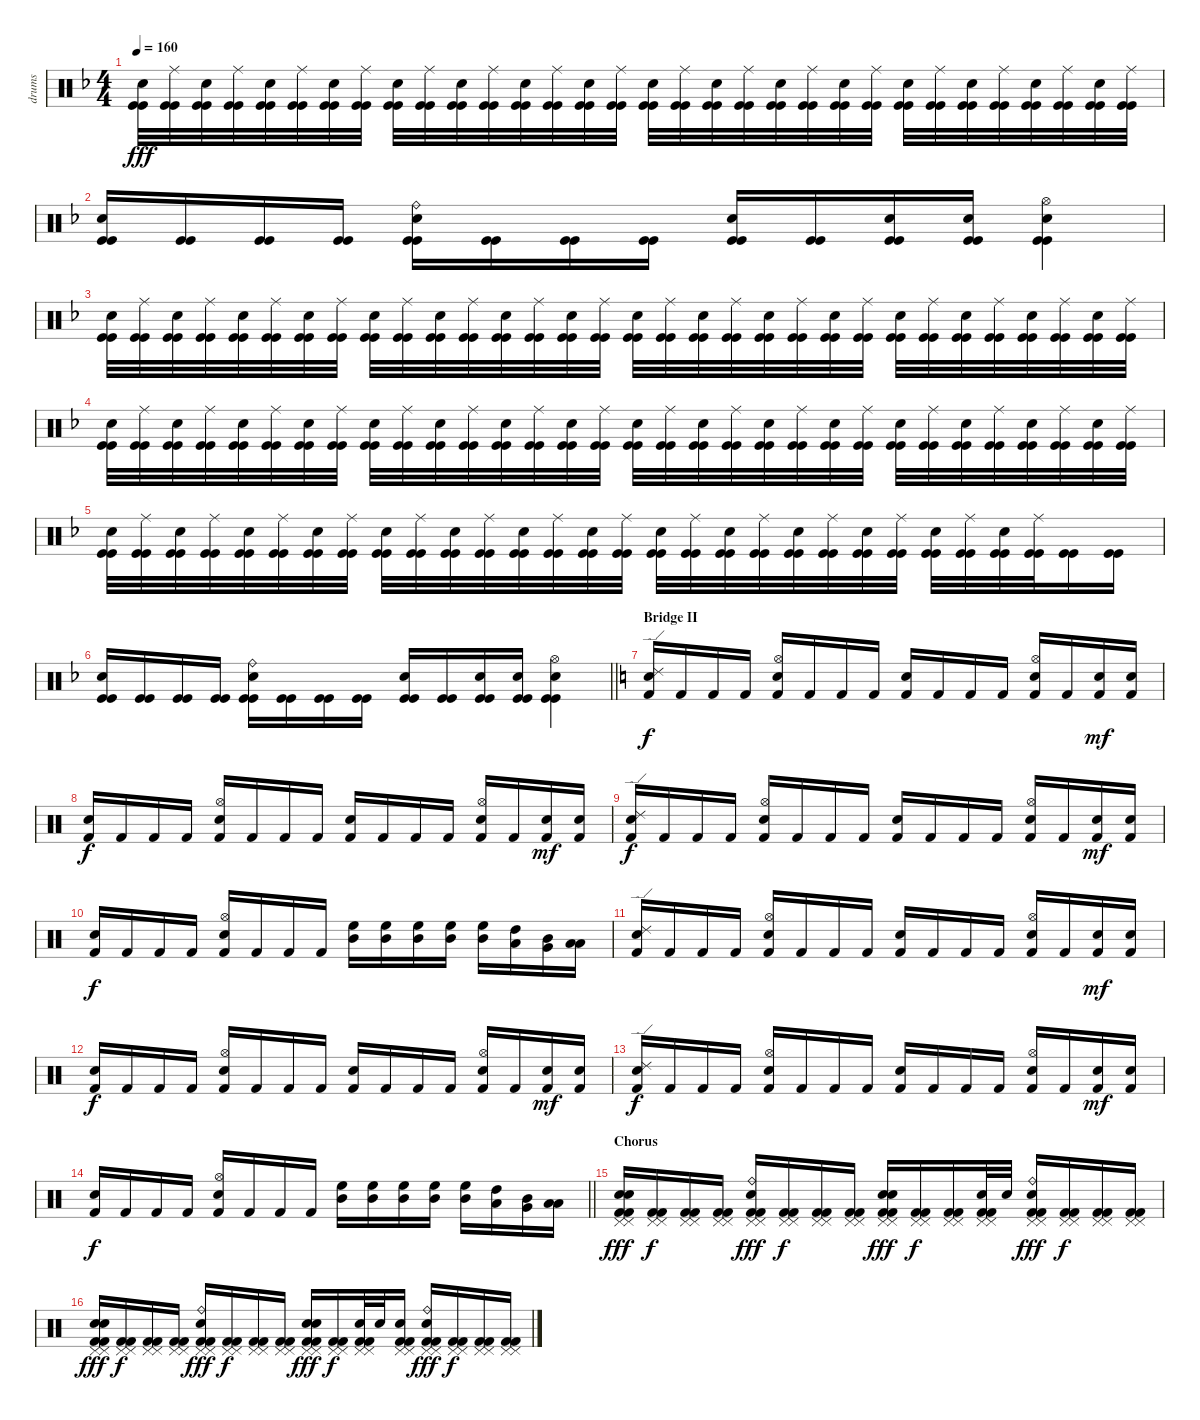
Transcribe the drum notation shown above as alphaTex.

\track ("drums" "drums") {instrument percussion}
\staff {score}
\articulation defaults
\ts (4 4)
\tempo 160
\clef neutral
\ks dminor
("Kick (hit)" "Kick (hit)" "Electric Snare (hit)").32{dy fff} ("Kick (hit)" "Kick (hit)" "Ride (middle)").32 ("Kick (hit)" "Kick (hit)" "Electric Snare (hit)").32 ("Kick (hit)" "Kick (hit)" "Ride (middle)").32 ("Kick (hit)" "Kick (hit)" "Electric Snare (hit)").32 ("Kick (hit)" "Kick (hit)" "Ride (middle)").32 ("Kick (hit)" "Kick (hit)" "Electric Snare (hit)").32 ("Kick (hit)" "Kick (hit)" "Ride (middle)").32 ("Kick (hit)" "Kick (hit)" "Electric Snare (hit)").32 ("Kick (hit)" "Kick (hit)" "Ride (middle)").32 ("Kick (hit)" "Kick (hit)" "Electric Snare (hit)").32 ("Kick (hit)" "Kick (hit)" "Ride (middle)").32 ("Kick (hit)" "Kick (hit)" "Electric Snare (hit)").32 ("Kick (hit)" "Kick (hit)" "Ride (middle)").32 ("Kick (hit)" "Kick (hit)" "Electric Snare (hit)").32 ("Kick (hit)" "Kick (hit)" "Ride (middle)").32 ("Kick (hit)" "Kick (hit)" "Electric Snare (hit)").32 ("Kick (hit)" "Kick (hit)" "Ride (middle)").32 ("Kick (hit)" "Kick (hit)" "Electric Snare (hit)").32 ("Kick (hit)" "Kick (hit)" "Ride (middle)").32 ("Kick (hit)" "Kick (hit)" "Electric Snare (hit)").32 ("Kick (hit)" "Kick (hit)" "Ride (middle)").32 ("Kick (hit)" "Kick (hit)" "Electric Snare (hit)").32 ("Kick (hit)" "Kick (hit)" "Ride (middle)").32 ("Kick (hit)" "Kick (hit)" "Electric Snare (hit)").32 ("Kick (hit)" "Kick (hit)" "Ride (middle)").32 ("Kick (hit)" "Kick (hit)" "Electric Snare (hit)").32 ("Kick (hit)" "Kick (hit)" "Ride (middle)").32 ("Kick (hit)" "Kick (hit)" "Electric Snare (hit)").32 ("Kick (hit)" "Kick (hit)" "Ride (middle)").32 ("Kick (hit)" "Kick (hit)" "Electric Snare (hit)").32 ("Kick (hit)" "Kick (hit)" "Ride (middle)").32 |
("Kick (hit)" "Kick (hit)" "Electric Snare (hit)").16 ("Kick (hit)" "Kick (hit)").16 ("Kick (hit)" "Kick (hit)").16 ("Kick (hit)" "Kick (hit)").16 ("Kick (hit)" "Kick (hit)" "Electric Snare (hit)" "Ride (bell)").16 ("Kick (hit)" "Kick (hit)").16 ("Kick (hit)" "Kick (hit)").16 ("Kick (hit)" "Kick (hit)").16 ("Kick (hit)" "Kick (hit)" "Electric Snare (hit)").16 ("Kick (hit)" "Kick (hit)").16 ("Kick (hit)" "Kick (hit)" "Electric Snare (hit)").16 ("Kick (hit)" "Kick (hit)" "Electric Snare (hit)").16 ("Kick (hit)" "Kick (hit)" "Electric Snare (hit)" "Hi-Hat (open)").4 |
("Kick (hit)" "Kick (hit)" "Electric Snare (hit)").32 ("Kick (hit)" "Kick (hit)" "Ride (middle)").32 ("Kick (hit)" "Kick (hit)" "Electric Snare (hit)").32 ("Kick (hit)" "Kick (hit)" "Ride (middle)").32 ("Kick (hit)" "Kick (hit)" "Electric Snare (hit)").32 ("Kick (hit)" "Kick (hit)" "Ride (middle)").32 ("Kick (hit)" "Kick (hit)" "Electric Snare (hit)").32 ("Kick (hit)" "Kick (hit)" "Ride (middle)").32 ("Kick (hit)" "Kick (hit)" "Electric Snare (hit)").32 ("Kick (hit)" "Kick (hit)" "Ride (middle)").32 ("Kick (hit)" "Kick (hit)" "Electric Snare (hit)").32 ("Kick (hit)" "Kick (hit)" "Ride (middle)").32 ("Kick (hit)" "Kick (hit)" "Electric Snare (hit)").32 ("Kick (hit)" "Kick (hit)" "Ride (middle)").32 ("Kick (hit)" "Kick (hit)" "Electric Snare (hit)").32 ("Kick (hit)" "Kick (hit)" "Ride (middle)").32 ("Kick (hit)" "Kick (hit)" "Electric Snare (hit)").32 ("Kick (hit)" "Kick (hit)" "Ride (middle)").32 ("Kick (hit)" "Kick (hit)" "Electric Snare (hit)").32 ("Kick (hit)" "Kick (hit)" "Ride (middle)").32 ("Kick (hit)" "Kick (hit)" "Electric Snare (hit)").32 ("Kick (hit)" "Kick (hit)" "Ride (middle)").32 ("Kick (hit)" "Kick (hit)" "Electric Snare (hit)").32 ("Kick (hit)" "Kick (hit)" "Ride (middle)").32 ("Kick (hit)" "Kick (hit)" "Electric Snare (hit)").32 ("Kick (hit)" "Kick (hit)" "Ride (middle)").32 ("Kick (hit)" "Kick (hit)" "Electric Snare (hit)").32 ("Kick (hit)" "Kick (hit)" "Ride (middle)").32 ("Kick (hit)" "Kick (hit)" "Electric Snare (hit)").32 ("Kick (hit)" "Kick (hit)" "Ride (middle)").32 ("Kick (hit)" "Kick (hit)" "Electric Snare (hit)").32 ("Kick (hit)" "Kick (hit)" "Ride (middle)").32 |
("Kick (hit)" "Kick (hit)" "Electric Snare (hit)").32 ("Kick (hit)" "Kick (hit)" "Ride (middle)").32 ("Kick (hit)" "Kick (hit)" "Electric Snare (hit)").32 ("Kick (hit)" "Kick (hit)" "Ride (middle)").32 ("Kick (hit)" "Kick (hit)" "Electric Snare (hit)").32 ("Kick (hit)" "Kick (hit)" "Ride (middle)").32 ("Kick (hit)" "Kick (hit)" "Electric Snare (hit)").32 ("Kick (hit)" "Kick (hit)" "Ride (middle)").32 ("Kick (hit)" "Kick (hit)" "Electric Snare (hit)").32 ("Kick (hit)" "Kick (hit)" "Ride (middle)").32 ("Kick (hit)" "Kick (hit)" "Electric Snare (hit)").32 ("Kick (hit)" "Kick (hit)" "Ride (middle)").32 ("Kick (hit)" "Kick (hit)" "Electric Snare (hit)").32 ("Kick (hit)" "Kick (hit)" "Ride (middle)").32 ("Kick (hit)" "Kick (hit)" "Electric Snare (hit)").32 ("Kick (hit)" "Kick (hit)" "Ride (middle)").32 ("Kick (hit)" "Kick (hit)" "Electric Snare (hit)").32 ("Kick (hit)" "Kick (hit)" "Ride (middle)").32 ("Kick (hit)" "Kick (hit)" "Electric Snare (hit)").32 ("Kick (hit)" "Kick (hit)" "Ride (middle)").32 ("Kick (hit)" "Kick (hit)" "Electric Snare (hit)").32 ("Kick (hit)" "Kick (hit)" "Ride (middle)").32 ("Kick (hit)" "Kick (hit)" "Electric Snare (hit)").32 ("Kick (hit)" "Kick (hit)" "Ride (middle)").32 ("Kick (hit)" "Kick (hit)" "Electric Snare (hit)").32 ("Kick (hit)" "Kick (hit)" "Ride (middle)").32 ("Kick (hit)" "Kick (hit)" "Electric Snare (hit)").32 ("Kick (hit)" "Kick (hit)" "Ride (middle)").32 ("Kick (hit)" "Kick (hit)" "Electric Snare (hit)").32 ("Kick (hit)" "Kick (hit)" "Ride (middle)").32 ("Kick (hit)" "Kick (hit)" "Electric Snare (hit)").32 ("Kick (hit)" "Kick (hit)" "Ride (middle)").32 |
("Kick (hit)" "Kick (hit)" "Electric Snare (hit)").32 ("Kick (hit)" "Kick (hit)" "Ride (middle)").32 ("Kick (hit)" "Kick (hit)" "Electric Snare (hit)").32 ("Kick (hit)" "Kick (hit)" "Ride (middle)").32 ("Kick (hit)" "Kick (hit)" "Electric Snare (hit)").32 ("Kick (hit)" "Kick (hit)" "Ride (middle)").32 ("Kick (hit)" "Kick (hit)" "Electric Snare (hit)").32 ("Kick (hit)" "Kick (hit)" "Ride (middle)").32 ("Kick (hit)" "Kick (hit)" "Electric Snare (hit)").32 ("Kick (hit)" "Kick (hit)" "Ride (middle)").32 ("Kick (hit)" "Kick (hit)" "Electric Snare (hit)").32 ("Kick (hit)" "Kick (hit)" "Ride (middle)").32 ("Kick (hit)" "Kick (hit)" "Electric Snare (hit)").32 ("Kick (hit)" "Kick (hit)" "Ride (middle)").32 ("Kick (hit)" "Kick (hit)" "Electric Snare (hit)").32 ("Kick (hit)" "Kick (hit)" "Ride (middle)").32 ("Kick (hit)" "Kick (hit)" "Electric Snare (hit)").32 ("Kick (hit)" "Kick (hit)" "Ride (middle)").32 ("Kick (hit)" "Kick (hit)" "Electric Snare (hit)").32 ("Kick (hit)" "Kick (hit)" "Ride (middle)").32 ("Kick (hit)" "Kick (hit)" "Electric Snare (hit)").32 ("Kick (hit)" "Kick (hit)" "Ride (middle)").32 ("Kick (hit)" "Kick (hit)" "Electric Snare (hit)").32 ("Kick (hit)" "Kick (hit)" "Ride (middle)").32 ("Kick (hit)" "Kick (hit)" "Electric Snare (hit)").32 ("Kick (hit)" "Kick (hit)" "Ride (middle)").32 ("Kick (hit)" "Kick (hit)" "Electric Snare (hit)").32 ("Kick (hit)" "Kick (hit)" "Ride (middle)").32 ("Kick (hit)" "Kick (hit)").16 ("Kick (hit)" "Kick (hit)").16 |
\barLineRight lightlight
("Kick (hit)" "Kick (hit)" "Electric Snare (hit)").16 ("Kick (hit)" "Kick (hit)").16 ("Kick (hit)" "Kick (hit)").16 ("Kick (hit)" "Kick (hit)").16 ("Kick (hit)" "Kick (hit)" "Electric Snare (hit)" "Ride (bell)").16 ("Kick (hit)" "Kick (hit)").16 ("Kick (hit)" "Kick (hit)").16 ("Kick (hit)" "Kick (hit)").16 ("Kick (hit)" "Kick (hit)" "Electric Snare (hit)").16 ("Kick (hit)" "Kick (hit)").16 ("Kick (hit)" "Kick (hit)" "Electric Snare (hit)").16 ("Kick (hit)" "Kick (hit)" "Electric Snare (hit)").16 ("Kick (hit)" "Kick (hit)" "Electric Snare (hit)" "Hi-Hat (open)").4 |
\section ("" "Bridge II")
\ks c
("Kick (hit) 2" "Electric Snare (hit)" "Ride (edge) 2").16{dy f} "Kick (hit) 2".16 "Kick (hit) 2".16 "Kick (hit) 2".16 ("Kick (hit) 2" "Electric Snare (hit)" "Hi-Hat (open)").16 "Kick (hit) 2".16 "Kick (hit) 2".16 "Kick (hit) 2".16 ("Kick (hit) 2" "Electric Snare (hit)").16 "Kick (hit) 2".16 "Kick (hit) 2".16 "Kick (hit) 2".16 ("Kick (hit) 2" "Electric Snare (hit)" "Hi-Hat (open)").16 "Kick (hit) 2".16 ("Kick (hit) 2" "Electric Snare (hit)").16{dy mf} ("Kick (hit) 2" "Electric Snare (hit)").16 |
("Kick (hit) 2" "Electric Snare (hit)").16{dy f} "Kick (hit) 2".16 "Kick (hit) 2".16 "Kick (hit) 2".16 ("Kick (hit) 2" "Electric Snare (hit)" "Hi-Hat (open)").16 "Kick (hit) 2".16 "Kick (hit) 2".16 "Kick (hit) 2".16 ("Kick (hit) 2" "Electric Snare (hit)").16 "Kick (hit) 2".16 "Kick (hit) 2".16 "Kick (hit) 2".16 ("Kick (hit) 2" "Electric Snare (hit)" "Hi-Hat (open)").16 "Kick (hit) 2".16 ("Kick (hit) 2" "Electric Snare (hit)").16{dy mf} ("Kick (hit) 2" "Electric Snare (hit)").16 |
("Kick (hit) 2" "Electric Snare (hit)" "Ride (edge) 2").16{dy f} "Kick (hit) 2".16 "Kick (hit) 2".16 "Kick (hit) 2".16 ("Kick (hit) 2" "Electric Snare (hit)" "Hi-Hat (open)").16 "Kick (hit) 2".16 "Kick (hit) 2".16 "Kick (hit) 2".16 ("Kick (hit) 2" "Electric Snare (hit)").16 "Kick (hit) 2".16 "Kick (hit) 2".16 "Kick (hit) 2".16 ("Kick (hit) 2" "Electric Snare (hit)" "Hi-Hat (open)").16 "Kick (hit) 2".16 ("Kick (hit) 2" "Electric Snare (hit)").16{dy mf} ("Kick (hit) 2" "Electric Snare (hit)").16 |
("Kick (hit) 2" "Electric Snare (hit)").16{dy f} "Kick (hit) 2".16 "Kick (hit) 2".16 "Kick (hit) 2".16 ("Kick (hit) 2" "Electric Snare (hit)" "Hi-Hat (open)").16 "Kick (hit) 2".16 "Kick (hit) 2".16 "Kick (hit) 2".16 ("High Floor Tom (hit)" "Mid Tom (hit)").16 ("High Floor Tom (hit)" "Mid Tom (hit)").16 ("High Floor Tom (hit)" "Mid Tom (hit)").16 ("High Floor Tom (hit)" "Mid Tom (hit)").16 ("High Floor Tom (hit)" "Mid Tom (hit)").16 ("High Tom (hit)" "Low Tom (hit)").16 ("Mid Tom (hit)" "Very Low Tom (hit)").16 ("Low Tom (hit)" "Low Floor Tom (hit)").16 |
("Kick (hit) 2" "Electric Snare (hit)" "Ride (edge) 2").16 "Kick (hit) 2".16 "Kick (hit) 2".16 "Kick (hit) 2".16 ("Kick (hit) 2" "Electric Snare (hit)" "Hi-Hat (open)").16 "Kick (hit) 2".16 "Kick (hit) 2".16 "Kick (hit) 2".16 ("Kick (hit) 2" "Electric Snare (hit)").16 "Kick (hit) 2".16 "Kick (hit) 2".16 "Kick (hit) 2".16 ("Kick (hit) 2" "Electric Snare (hit)" "Hi-Hat (open)").16 "Kick (hit) 2".16 ("Kick (hit) 2" "Electric Snare (hit)").16{dy mf} ("Kick (hit) 2" "Electric Snare (hit)").16 |
("Kick (hit) 2" "Electric Snare (hit)").16{dy f} "Kick (hit) 2".16 "Kick (hit) 2".16 "Kick (hit) 2".16 ("Kick (hit) 2" "Electric Snare (hit)" "Hi-Hat (open)").16 "Kick (hit) 2".16 "Kick (hit) 2".16 "Kick (hit) 2".16 ("Kick (hit) 2" "Electric Snare (hit)").16 "Kick (hit) 2".16 "Kick (hit) 2".16 "Kick (hit) 2".16 ("Kick (hit) 2" "Electric Snare (hit)" "Hi-Hat (open)").16 "Kick (hit) 2".16 ("Kick (hit) 2" "Electric Snare (hit)").16{dy mf} ("Kick (hit) 2" "Electric Snare (hit)").16 |
("Kick (hit) 2" "Electric Snare (hit)" "Ride (edge) 2").16{dy f} "Kick (hit) 2".16 "Kick (hit) 2".16 "Kick (hit) 2".16 ("Kick (hit) 2" "Electric Snare (hit)" "Hi-Hat (open)").16 "Kick (hit) 2".16 "Kick (hit) 2".16 "Kick (hit) 2".16 ("Kick (hit) 2" "Electric Snare (hit)").16 "Kick (hit) 2".16 "Kick (hit) 2".16 "Kick (hit) 2".16 ("Kick (hit) 2" "Electric Snare (hit)" "Hi-Hat (open)").16 "Kick (hit) 2".16 ("Kick (hit) 2" "Electric Snare (hit)").16{dy mf} ("Kick (hit) 2" "Electric Snare (hit)").16 |
\barLineRight lightlight
("Kick (hit) 2" "Electric Snare (hit)").16{dy f} "Kick (hit) 2".16 "Kick (hit) 2".16 "Kick (hit) 2".16 ("Kick (hit) 2" "Electric Snare (hit)" "Hi-Hat (open)").16 "Kick (hit) 2".16 "Kick (hit) 2".16 "Kick (hit) 2".16 ("High Floor Tom (hit)" "Mid Tom (hit)").16 ("High Floor Tom (hit)" "Mid Tom (hit)").16 ("High Floor Tom (hit)" "Mid Tom (hit)").16 ("High Floor Tom (hit)" "Mid Tom (hit)").16 ("High Floor Tom (hit)" "Mid Tom (hit)").16 ("High Tom (hit)" "Low Tom (hit)").16 ("Mid Tom (hit)" "Very Low Tom (hit)").16 ("Low Tom (hit)" "Low Floor Tom (hit)").16 |
\section ("" "Chorus")
("Electric Snare (hit)" "Electric Snare (hit)" "Pedal Hi-Hat (hit)" "Pedal Hi-Hat (hit)" "Kick (hit) 2" "Kick (hit) 2").16{dy fff} ("Pedal Hi-Hat (hit)" "Pedal Hi-Hat (hit)" "Kick (hit) 2" "Kick (hit) 2").16{dy f} ("Pedal Hi-Hat (hit)" "Pedal Hi-Hat (hit)" "Kick (hit) 2" "Kick (hit) 2").16 ("Pedal Hi-Hat (hit)" "Pedal Hi-Hat (hit)" "Kick (hit) 2" "Kick (hit) 2").16 ("Ride (bell)" "Snare (hit) 2" "Pedal Hi-Hat (hit)" "Pedal Hi-Hat (hit)" "Kick (hit) 2" "Kick (hit) 2").16{dy fff} ("Pedal Hi-Hat (hit)" "Pedal Hi-Hat (hit)" "Kick (hit) 2" "Kick (hit) 2").16{dy f} ("Pedal Hi-Hat (hit)" "Pedal Hi-Hat (hit)" "Kick (hit) 2" "Kick (hit) 2").16 ("Pedal Hi-Hat (hit)" "Pedal Hi-Hat (hit)" "Kick (hit) 2" "Kick (hit) 2").16 ("Electric Snare (hit)" "Electric Snare (hit)" "Pedal Hi-Hat (hit)" "Pedal Hi-Hat (hit)" "Kick (hit) 2" "Kick (hit) 2").16{dy fff} ("Pedal Hi-Hat (hit)" "Pedal Hi-Hat (hit)" "Kick (hit) 2" "Kick (hit) 2").16{dy f} ("Pedal Hi-Hat (hit)" "Pedal Hi-Hat (hit)" "Kick (hit) 2" "Kick (hit) 2").16 ("Electric Snare (hit)" "Pedal Hi-Hat (hit)" "Pedal Hi-Hat (hit)" "Kick (hit) 2" "Kick (hit) 2").32 "Electric Snare (hit)".32 ("Ride (bell)" "Electric Snare (hit)" "Pedal Hi-Hat (hit)" "Pedal Hi-Hat (hit)" "Kick (hit) 2" "Kick (hit) 2").16{dy fff} ("Pedal Hi-Hat (hit)" "Pedal Hi-Hat (hit)" "Kick (hit) 2" "Kick (hit) 2").16{dy f} ("Pedal Hi-Hat (hit)" "Pedal Hi-Hat (hit)" "Kick (hit) 2" "Kick (hit) 2").16 ("Pedal Hi-Hat (hit)" "Pedal Hi-Hat (hit)" "Kick (hit) 2" "Kick (hit) 2").16 |
("Electric Snare (hit)" "Electric Snare (hit)" "Pedal Hi-Hat (hit)" "Pedal Hi-Hat (hit)" "Kick (hit) 2" "Kick (hit) 2").16{dy fff} ("Pedal Hi-Hat (hit)" "Pedal Hi-Hat (hit)" "Kick (hit) 2" "Kick (hit) 2").16{dy f} ("Pedal Hi-Hat (hit)" "Pedal Hi-Hat (hit)" "Kick (hit) 2" "Kick (hit) 2").16 ("Pedal Hi-Hat (hit)" "Pedal Hi-Hat (hit)" "Kick (hit) 2" "Kick (hit) 2").16 ("Ride (bell)" "Snare (hit) 2" "Pedal Hi-Hat (hit)" "Pedal Hi-Hat (hit)" "Kick (hit) 2" "Kick (hit) 2").16{dy fff} ("Pedal Hi-Hat (hit)" "Pedal Hi-Hat (hit)" "Kick (hit) 2" "Kick (hit) 2").16{dy f} ("Pedal Hi-Hat (hit)" "Pedal Hi-Hat (hit)" "Kick (hit) 2" "Kick (hit) 2").16 ("Pedal Hi-Hat (hit)" "Pedal Hi-Hat (hit)" "Kick (hit) 2" "Kick (hit) 2").16 ("Electric Snare (hit)" "Electric Snare (hit)" "Pedal Hi-Hat (hit)" "Pedal Hi-Hat (hit)" "Kick (hit) 2" "Kick (hit) 2").16{dy fff} ("Pedal Hi-Hat (hit)" "Pedal Hi-Hat (hit)" "Kick (hit) 2" "Kick (hit) 2").16{dy f} ("Electric Snare (hit)" "Pedal Hi-Hat (hit)" "Pedal Hi-Hat (hit)" "Kick (hit) 2" "Kick (hit) 2").32 "Electric Snare (hit)".32 ("Electric Snare (hit)" "Pedal Hi-Hat (hit)" "Pedal Hi-Hat (hit)" "Kick (hit) 2" "Kick (hit) 2").16 ("Ride (bell)" "Snare (hit) 2" "Pedal Hi-Hat (hit)" "Pedal Hi-Hat (hit)" "Kick (hit) 2" "Kick (hit) 2").16{dy fff} ("Pedal Hi-Hat (hit)" "Pedal Hi-Hat (hit)" "Kick (hit) 2" "Kick (hit) 2").16{dy f} ("Pedal Hi-Hat (hit)" "Pedal Hi-Hat (hit)" "Kick (hit) 2" "Kick (hit) 2").16 ("Pedal Hi-Hat (hit)" "Pedal Hi-Hat (hit)" "Kick (hit) 2" "Kick (hit) 2").16
